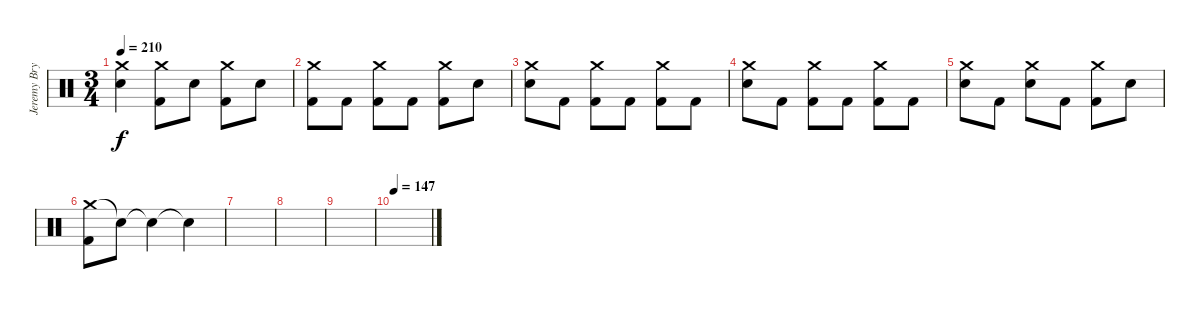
\track ("Jeremy Bryan - Drums" "Jeremy Bry") {instrument percussion}
\staff {score}
\articulation defaults
\ts (3 4)
\tempo 210
\clef neutral
\ks c
("Crash medium (hit)" "Electric Snare (hit)").4{dy f} ("Crash medium (hit)" "Kick (hit) 2").8 "Electric Snare (hit)".8 ("Crash medium (hit)" "Kick (hit) 2").8 "Electric Snare (hit)".8 |
("Crash medium (hit)" "Kick (hit) 2").8 "Kick (hit) 2".8 ("Crash medium (hit)" "Kick (hit) 2").8 "Kick (hit) 2".8 ("Crash medium (hit)" "Kick (hit) 2").8 "Electric Snare (hit)".8 |
("Crash medium (hit)" "Electric Snare (hit)").8 "Kick (hit) 2".8 ("Crash medium (hit)" "Kick (hit) 2").8 "Kick (hit) 2".8 ("Crash medium (hit)" "Kick (hit) 2").8 "Kick (hit) 2".8 |
("Crash medium (hit)" "Electric Snare (hit)").8 "Kick (hit) 2".8 ("Crash medium (hit)" "Kick (hit) 2").8 "Kick (hit) 2".8 ("Crash medium (hit)" "Kick (hit) 2").8 "Kick (hit) 2".8 |
("Crash medium (hit)" "Electric Snare (hit)").8 "Kick (hit) 2".8 ("Crash medium (hit)" "Electric Snare (hit)").8 "Kick (hit) 2".8 ("Crash medium (hit)" "Kick (hit) 2").8 "Electric Snare (hit)".8 |
("Crash medium (hit)" "Kick (hit) 2").8 "Snare (hit)"{t}.8 "Snare (hit)"{t}.4 "Snare (hit)"{t}.4 |
|
|
|
\tempo 147
